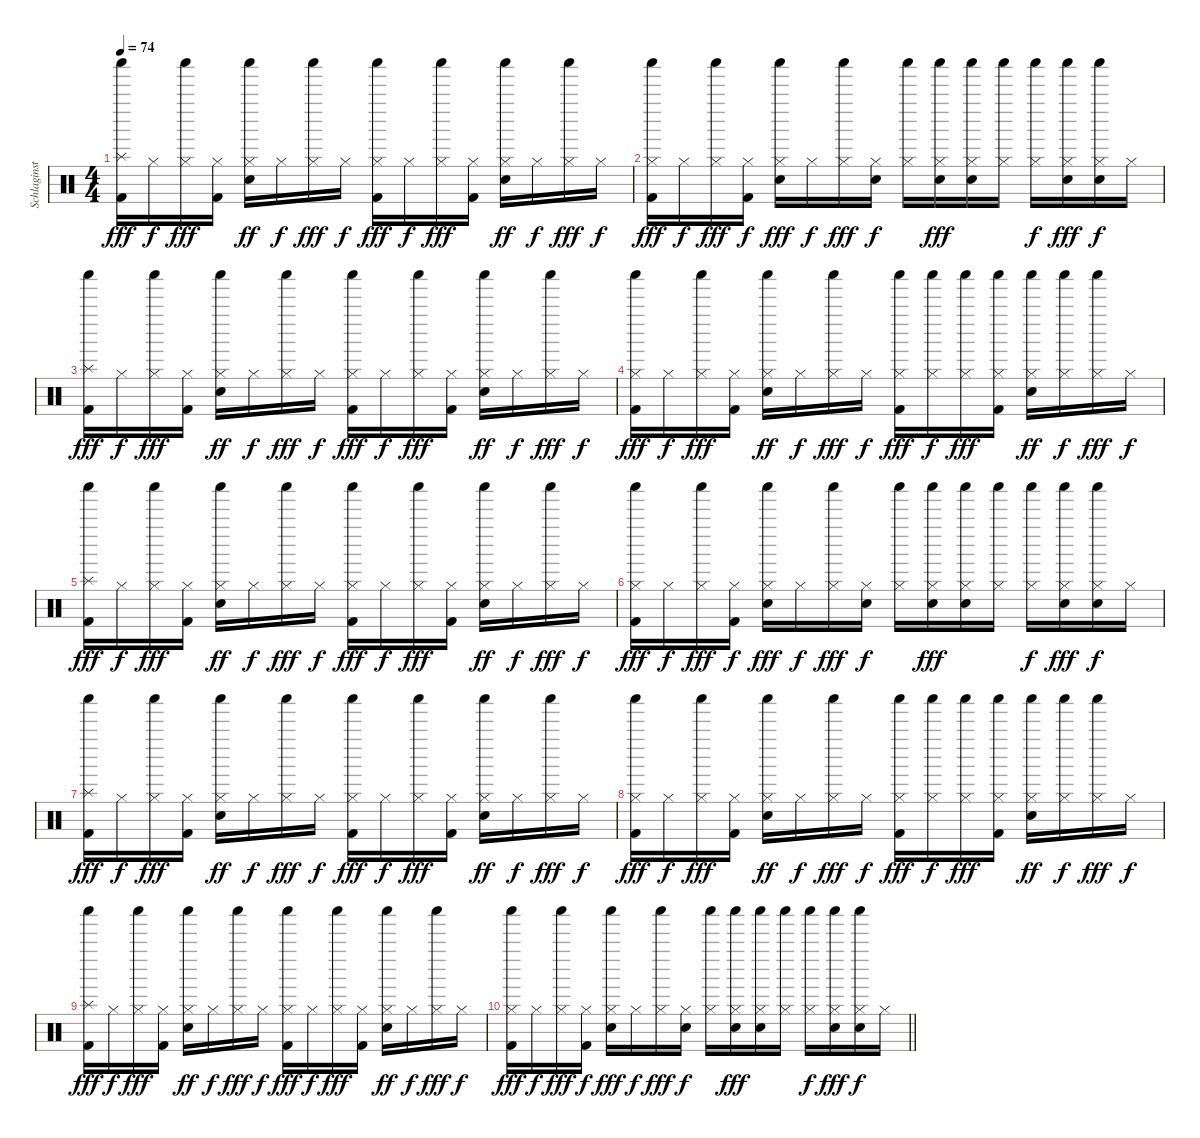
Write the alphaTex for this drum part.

\track ("Schlaginstrumente - Auswahl" "Schlaginst") {instrument percussion}
\staff {score}
\articulation defaults
\ts (4 4)
\tempo 74
\clef neutral
\ks c
("Shaker (hit)" "Splash (hit)" "Kick (hit) 2").16{dy fff} "Hi-Hat (closed)".16{dy f} ("Shaker (hit)" "Hi-Hat (closed)").16{dy fff} ("Hi-Hat (closed)" "Kick (hit) 2").16 ("Shaker (hit)" "Hi-Hat (closed)" "Electric Snare (hit)").16{dy ff} "Hi-Hat (closed)".16{dy f} ("Shaker (hit)" "Hi-Hat (closed)").16{dy fff} "Hi-Hat (closed)".16{dy f} ("Shaker (hit)" "Hi-Hat (closed)" "Kick (hit) 2").16{dy fff} "Hi-Hat (closed)".16{dy f} ("Shaker (hit)" "Hi-Hat (closed)").16{dy fff} ("Hi-Hat (closed)" "Kick (hit) 2").16 ("Shaker (hit)" "Hi-Hat (closed)" "Electric Snare (hit)").16{dy ff} "Hi-Hat (closed)".16{dy f} ("Shaker (hit)" "Hi-Hat (closed)").16{dy fff} "Hi-Hat (closed)".16{dy f} |
("Shaker (hit)" "Hi-Hat (closed)" "Kick (hit) 2").16{dy fff} "Hi-Hat (closed)".16{dy f} ("Shaker (hit)" "Hi-Hat (closed)").16{dy fff} ("Hi-Hat (closed)" "Kick (hit) 2").16{dy f} ("Shaker (hit)" "Hi-Hat (closed)" "Electric Snare (hit)").16{dy fff} "Hi-Hat (closed)".16{dy f} ("Shaker (hit)" "Hi-Hat (closed)").16{dy fff} ("Hi-Hat (closed)" "Electric Snare (hit)").16{dy f} ("Shaker (hit)" "Hi-Hat (closed)").16 ("Shaker (hit)" "Hi-Hat (closed)" "Electric Snare (hit)").16{dy fff} ("Shaker (hit)" "Hi-Hat (closed)" "Electric Snare (hit)").16 ("Shaker (hit)" "Hi-Hat (closed)").16 ("Shaker (hit)" "Hi-Hat (closed)").16{dy f} ("Shaker (hit)" "Hi-Hat (closed)" "Electric Snare (hit)").16{dy fff} ("Shaker (hit)" "Hi-Hat (closed)" "Electric Snare (hit)").16{dy f} "Hi-Hat (closed)".16 |
("Shaker (hit)" "Splash (hit)" "Kick (hit) 2").16{dy fff} "Hi-Hat (closed)".16{dy f} ("Shaker (hit)" "Hi-Hat (closed)").16{dy fff} ("Hi-Hat (closed)" "Kick (hit) 2").16 ("Shaker (hit)" "Hi-Hat (closed)" "Electric Snare (hit)").16{dy ff} "Hi-Hat (closed)".16{dy f} ("Shaker (hit)" "Hi-Hat (closed)").16{dy fff} "Hi-Hat (closed)".16{dy f} ("Shaker (hit)" "Hi-Hat (closed)" "Kick (hit) 2").16{dy fff} "Hi-Hat (closed)".16{dy f} ("Shaker (hit)" "Hi-Hat (closed)").16{dy fff} ("Hi-Hat (closed)" "Kick (hit) 2").16 ("Shaker (hit)" "Hi-Hat (closed)" "Electric Snare (hit)").16{dy ff} "Hi-Hat (closed)".16{dy f} ("Shaker (hit)" "Hi-Hat (closed)").16{dy fff} "Hi-Hat (closed)".16{dy f} |
("Shaker (hit)" "Hi-Hat (closed)" "Kick (hit) 2").16{dy fff} "Hi-Hat (closed)".16{dy f} ("Shaker (hit)" "Hi-Hat (closed)").16{dy fff} ("Hi-Hat (closed)" "Kick (hit) 2").16 ("Shaker (hit)" "Hi-Hat (closed)" "Electric Snare (hit)").16{dy ff} "Hi-Hat (closed)".16{dy f} ("Shaker (hit)" "Hi-Hat (closed)").16{dy fff} "Hi-Hat (closed)".16{dy f} ("Shaker (hit)" "Hi-Hat (closed)" "Kick (hit) 2").16{dy fff} ("Shaker (hit)" "Hi-Hat (closed)").16{dy f} ("Shaker (hit)" "Hi-Hat (closed)").16{dy fff} ("Shaker (hit)" "Hi-Hat (closed)" "Kick (hit) 2").16 ("Shaker (hit)" "Hi-Hat (closed)" "Electric Snare (hit)").16{dy ff} ("Shaker (hit)" "Hi-Hat (closed)").16{dy f} ("Shaker (hit)" "Hi-Hat (closed)").16{dy fff} "Hi-Hat (closed)".16{dy f} |
("Shaker (hit)" "Splash (hit)" "Kick (hit) 2").16{dy fff} "Hi-Hat (closed)".16{dy f} ("Shaker (hit)" "Hi-Hat (closed)").16{dy fff} ("Hi-Hat (closed)" "Kick (hit) 2").16 ("Shaker (hit)" "Hi-Hat (closed)" "Electric Snare (hit)").16{dy ff} "Hi-Hat (closed)".16{dy f} ("Shaker (hit)" "Hi-Hat (closed)").16{dy fff} "Hi-Hat (closed)".16{dy f} ("Shaker (hit)" "Hi-Hat (closed)" "Kick (hit) 2").16{dy fff} "Hi-Hat (closed)".16{dy f} ("Shaker (hit)" "Hi-Hat (closed)").16{dy fff} ("Hi-Hat (closed)" "Kick (hit) 2").16 ("Shaker (hit)" "Hi-Hat (closed)" "Electric Snare (hit)").16{dy ff} "Hi-Hat (closed)".16{dy f} ("Shaker (hit)" "Hi-Hat (closed)").16{dy fff} "Hi-Hat (closed)".16{dy f} |
("Shaker (hit)" "Hi-Hat (closed)" "Kick (hit) 2").16{dy fff} "Hi-Hat (closed)".16{dy f} ("Shaker (hit)" "Hi-Hat (closed)").16{dy fff} ("Hi-Hat (closed)" "Kick (hit) 2").16{dy f} ("Shaker (hit)" "Hi-Hat (closed)" "Electric Snare (hit)").16{dy fff} "Hi-Hat (closed)".16{dy f} ("Shaker (hit)" "Hi-Hat (closed)").16{dy fff} ("Hi-Hat (closed)" "Electric Snare (hit)").16{dy f} ("Shaker (hit)" "Hi-Hat (closed)").16 ("Shaker (hit)" "Hi-Hat (closed)" "Electric Snare (hit)").16{dy fff} ("Shaker (hit)" "Hi-Hat (closed)" "Electric Snare (hit)").16 ("Shaker (hit)" "Hi-Hat (closed)").16 ("Shaker (hit)" "Hi-Hat (closed)").16{dy f} ("Shaker (hit)" "Hi-Hat (closed)" "Electric Snare (hit)").16{dy fff} ("Shaker (hit)" "Hi-Hat (closed)" "Electric Snare (hit)").16{dy f} "Hi-Hat (closed)".16 |
("Shaker (hit)" "Splash (hit)" "Kick (hit) 2").16{dy fff} "Hi-Hat (closed)".16{dy f} ("Shaker (hit)" "Hi-Hat (closed)").16{dy fff} ("Hi-Hat (closed)" "Kick (hit) 2").16 ("Shaker (hit)" "Hi-Hat (closed)" "Electric Snare (hit)").16{dy ff} "Hi-Hat (closed)".16{dy f} ("Shaker (hit)" "Hi-Hat (closed)").16{dy fff} "Hi-Hat (closed)".16{dy f} ("Shaker (hit)" "Hi-Hat (closed)" "Kick (hit) 2").16{dy fff} "Hi-Hat (closed)".16{dy f} ("Shaker (hit)" "Hi-Hat (closed)").16{dy fff} ("Hi-Hat (closed)" "Kick (hit) 2").16 ("Shaker (hit)" "Hi-Hat (closed)" "Electric Snare (hit)").16{dy ff} "Hi-Hat (closed)".16{dy f} ("Shaker (hit)" "Hi-Hat (closed)").16{dy fff} "Hi-Hat (closed)".16{dy f} |
("Shaker (hit)" "Hi-Hat (closed)" "Kick (hit) 2").16{dy fff} "Hi-Hat (closed)".16{dy f} ("Shaker (hit)" "Hi-Hat (closed)").16{dy fff} ("Hi-Hat (closed)" "Kick (hit) 2").16 ("Shaker (hit)" "Hi-Hat (closed)" "Electric Snare (hit)").16{dy ff} "Hi-Hat (closed)".16{dy f} ("Shaker (hit)" "Hi-Hat (closed)").16{dy fff} "Hi-Hat (closed)".16{dy f} ("Shaker (hit)" "Hi-Hat (closed)" "Kick (hit) 2").16{dy fff} ("Shaker (hit)" "Hi-Hat (closed)").16{dy f} ("Shaker (hit)" "Hi-Hat (closed)").16{dy fff} ("Shaker (hit)" "Hi-Hat (closed)" "Kick (hit) 2").16 ("Shaker (hit)" "Hi-Hat (closed)" "Electric Snare (hit)").16{dy ff} ("Shaker (hit)" "Hi-Hat (closed)").16{dy f} ("Shaker (hit)" "Hi-Hat (closed)").16{dy fff} "Hi-Hat (closed)".16{dy f} |
("Shaker (hit)" "Splash (hit)" "Kick (hit) 2").16{dy fff} "Hi-Hat (closed)".16{dy f} ("Shaker (hit)" "Hi-Hat (closed)").16{dy fff} ("Hi-Hat (closed)" "Kick (hit) 2").16 ("Shaker (hit)" "Hi-Hat (closed)" "Electric Snare (hit)").16{dy ff} "Hi-Hat (closed)".16{dy f} ("Shaker (hit)" "Hi-Hat (closed)").16{dy fff} "Hi-Hat (closed)".16{dy f} ("Shaker (hit)" "Hi-Hat (closed)" "Kick (hit) 2").16{dy fff} "Hi-Hat (closed)".16{dy f} ("Shaker (hit)" "Hi-Hat (closed)").16{dy fff} ("Hi-Hat (closed)" "Kick (hit) 2").16 ("Shaker (hit)" "Hi-Hat (closed)" "Electric Snare (hit)").16{dy ff} "Hi-Hat (closed)".16{dy f} ("Shaker (hit)" "Hi-Hat (closed)").16{dy fff} "Hi-Hat (closed)".16{dy f} |
\barLineRight lightlight
("Shaker (hit)" "Hi-Hat (closed)" "Kick (hit) 2").16{dy fff} "Hi-Hat (closed)".16{dy f} ("Shaker (hit)" "Hi-Hat (closed)").16{dy fff} ("Hi-Hat (closed)" "Kick (hit) 2").16{dy f} ("Shaker (hit)" "Hi-Hat (closed)" "Electric Snare (hit)").16{dy fff} "Hi-Hat (closed)".16{dy f} ("Shaker (hit)" "Hi-Hat (closed)").16{dy fff} ("Hi-Hat (closed)" "Electric Snare (hit)").16{dy f} ("Shaker (hit)" "Hi-Hat (closed)").16 ("Shaker (hit)" "Hi-Hat (closed)" "Electric Snare (hit)").16{dy fff} ("Shaker (hit)" "Hi-Hat (closed)" "Electric Snare (hit)").16 ("Shaker (hit)" "Hi-Hat (closed)").16 ("Shaker (hit)" "Hi-Hat (closed)").16{dy f} ("Shaker (hit)" "Hi-Hat (closed)" "Electric Snare (hit)").16{dy fff} ("Shaker (hit)" "Hi-Hat (closed)" "Electric Snare (hit)").16{dy f} "Hi-Hat (closed)".16
